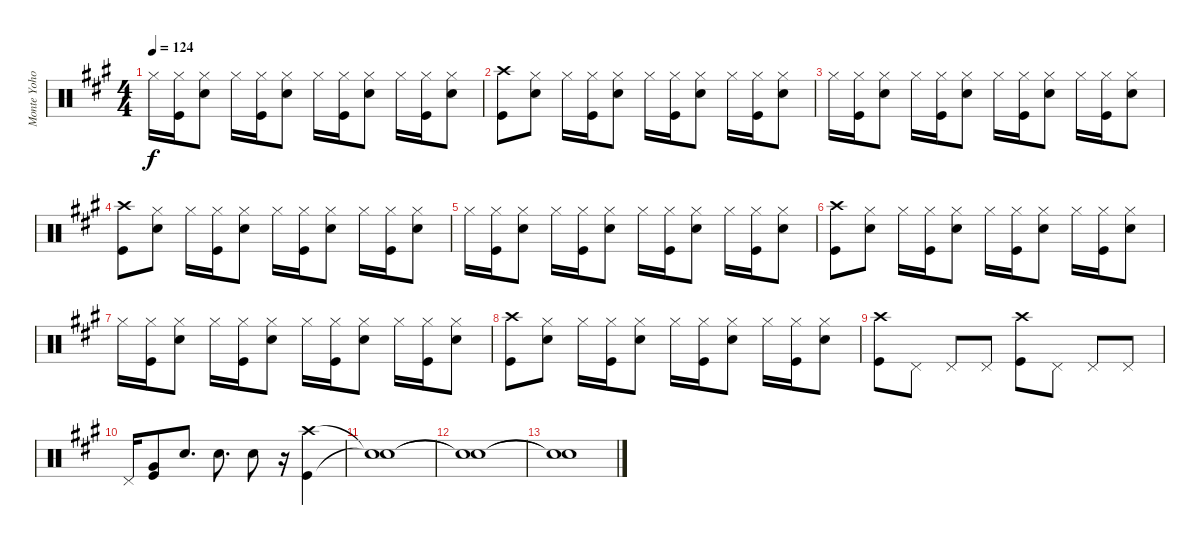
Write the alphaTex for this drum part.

\track ("Monte Yoho Drums" "Monte Yoho") {instrument percussion}
\staff {score}
\articulation defaults
\ts (4 4)
\tempo 124
\clef neutral
\ks a "Hi-Hat (closed)".16{dy f}
("Hi-Hat (closed)" "Kick (hit)").16 ("Hi-Hat (closed)" "Snare (hit) 2").8 "Hi-Hat (closed)".16 ("Hi-Hat (closed)" "Kick (hit)").16 ("Hi-Hat (closed)" "Snare (hit) 2").8 "Hi-Hat (closed)".16 ("Hi-Hat (closed)" "Kick (hit)").16 ("Hi-Hat (closed)" "Snare (hit) 2").8 "Hi-Hat (closed)".16 ("Hi-Hat (closed)" "Kick (hit)").16 ("Hi-Hat (closed)" "Snare (hit) 2").8 |
("Crash high (hit)" "Kick (hit)").8 ("Hi-Hat (closed)" "Snare (hit) 2").8 "Hi-Hat (closed)".16 ("Hi-Hat (closed)" "Kick (hit)").16 ("Hi-Hat (closed)" "Snare (hit) 2").8 "Hi-Hat (closed)".16 ("Hi-Hat (closed)" "Kick (hit)").16 ("Hi-Hat (closed)" "Snare (hit) 2").8 "Hi-Hat (closed)".16 ("Hi-Hat (closed)" "Kick (hit)").16 ("Hi-Hat (closed)" "Snare (hit) 2").8 |
"Hi-Hat (closed)".16 ("Hi-Hat (closed)" "Kick (hit)").16 ("Hi-Hat (closed)" "Snare (hit) 2").8 "Hi-Hat (closed)".16 ("Hi-Hat (closed)" "Kick (hit)").16 ("Hi-Hat (closed)" "Snare (hit) 2").8 "Hi-Hat (closed)".16 ("Hi-Hat (closed)" "Kick (hit)").16 ("Hi-Hat (closed)" "Snare (hit) 2").8 "Hi-Hat (closed)".16 ("Hi-Hat (closed)" "Kick (hit)").16 ("Hi-Hat (closed)" "Snare (hit) 2").8 |
("Crash high (hit)" "Kick (hit)").8 ("Hi-Hat (closed)" "Snare (hit) 2").8 "Hi-Hat (closed)".16 ("Hi-Hat (closed)" "Kick (hit)").16 ("Hi-Hat (closed)" "Snare (hit) 2").8 "Hi-Hat (closed)".16 ("Hi-Hat (closed)" "Kick (hit)").16 ("Hi-Hat (closed)" "Snare (hit) 2").8 "Hi-Hat (closed)".16 ("Hi-Hat (closed)" "Kick (hit)").16 ("Hi-Hat (closed)" "Snare (hit) 2").8 |
"Hi-Hat (closed)".16 ("Hi-Hat (closed)" "Kick (hit)").16 ("Hi-Hat (closed)" "Snare (hit) 2").8 "Hi-Hat (closed)".16 ("Hi-Hat (closed)" "Kick (hit)").16 ("Hi-Hat (closed)" "Snare (hit) 2").8 "Hi-Hat (closed)".16 ("Hi-Hat (closed)" "Kick (hit)").16 ("Hi-Hat (closed)" "Snare (hit) 2").8 "Hi-Hat (closed)".16 ("Hi-Hat (closed)" "Kick (hit)").16 ("Hi-Hat (closed)" "Snare (hit) 2").8 |
("Crash high (hit)" "Kick (hit)").8 ("Hi-Hat (closed)" "Snare (hit) 2").8 "Hi-Hat (closed)".16 ("Hi-Hat (closed)" "Kick (hit)").16 ("Hi-Hat (closed)" "Snare (hit) 2").8 "Hi-Hat (closed)".16 ("Hi-Hat (closed)" "Kick (hit)").16 ("Hi-Hat (closed)" "Snare (hit) 2").8 "Hi-Hat (closed)".16 ("Hi-Hat (closed)" "Kick (hit)").16 ("Hi-Hat (closed)" "Snare (hit) 2").8 |
"Hi-Hat (closed)".16 ("Hi-Hat (closed)" "Kick (hit)").16 ("Hi-Hat (closed)" "Snare (hit) 2").8 "Hi-Hat (closed)".16 ("Hi-Hat (closed)" "Kick (hit)").16 ("Hi-Hat (closed)" "Snare (hit) 2").8 "Hi-Hat (closed)".16 ("Hi-Hat (closed)" "Kick (hit)").16 ("Hi-Hat (closed)" "Snare (hit) 2").8 "Hi-Hat (closed)".16 ("Hi-Hat (closed)" "Kick (hit)").16 ("Hi-Hat (closed)" "Snare (hit) 2").8 |
("Crash high (hit)" "Kick (hit)").8 ("Hi-Hat (closed)" "Snare (hit) 2").8 "Hi-Hat (closed)".16 ("Hi-Hat (closed)" "Kick (hit)").16 ("Hi-Hat (closed)" "Snare (hit) 2").8 "Hi-Hat (closed)".16 ("Hi-Hat (closed)" "Kick (hit)").16 ("Hi-Hat (closed)" "Snare (hit) 2").8 "Hi-Hat (closed)".16 ("Hi-Hat (closed)" "Kick (hit)").16 ("Hi-Hat (closed)" "Snare (hit) 2").8 |
("Crash high (hit)" "Kick (hit)").8 "Pedal Hi-Hat (hit)".8 "Pedal Hi-Hat (hit)".8 "Pedal Hi-Hat (hit)".8 ("Crash high (hit)" "Kick (hit)").8 "Pedal Hi-Hat (hit)".8 "Pedal Hi-Hat (hit)".8 "Pedal Hi-Hat (hit)".8 |
"Pedal Hi-Hat (hit)".16 ("Very Low Tom (hit)" "Kick (hit)").8 "Snare (hit) 2".8{d} "Snare (hit) 2".8{d} "Snare (hit) 2".8 r.16 ("Crash high (hit)" "Kick (hit)").4 |
("Snare (hit)"{t} "Snare (hit)"{t}).1 |
("Snare (hit)"{t} "Snare (hit)"{t}).1 |
("Snare (hit)"{t} "Snare (hit)"{t}).1
